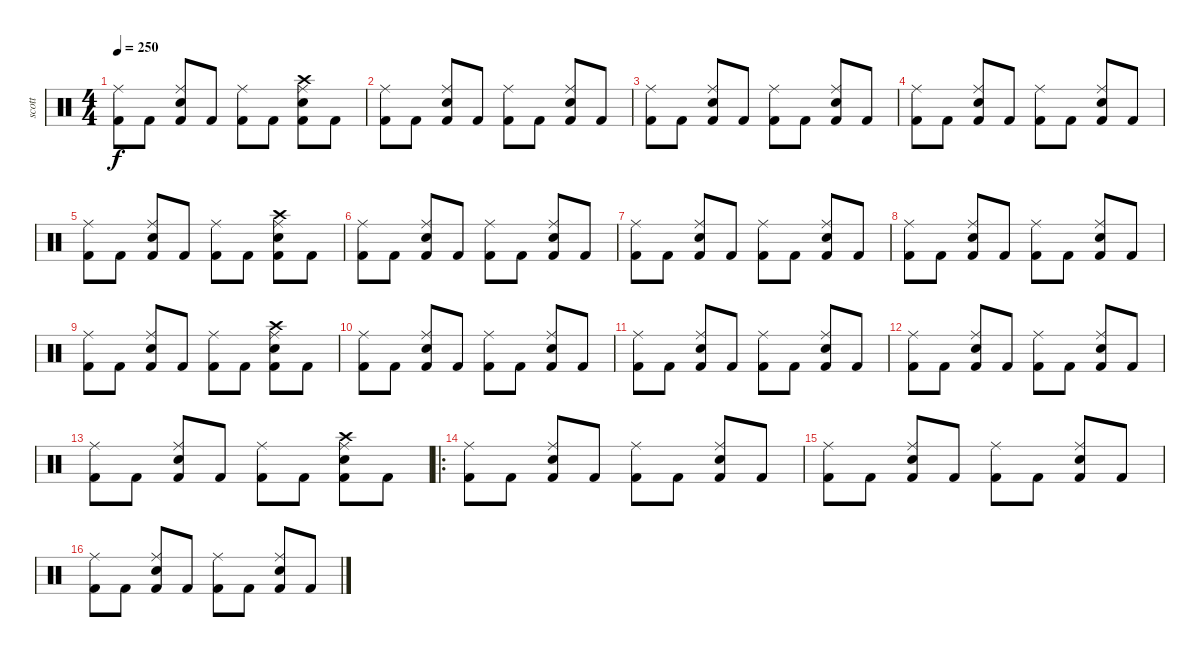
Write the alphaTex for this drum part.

\track ("scott" "scott") {instrument percussion bank 10}
\staff {score}
\articulation defaults
\ts (4 4)
\tempo 250
\clef neutral
\ks c
("Kick (hit) 2" "Ride (middle)").8{dy f} "Kick (hit) 2".8 ("Kick (hit) 2" "Snare (hit) 2" "Ride (middle)").8 "Kick (hit) 2".8 ("Kick (hit) 2" "Ride (middle)").8 "Kick (hit) 2".8 ("Kick (hit) 2" "Snare (hit) 2" "Ride (middle)" "Crash high (hit)").8 "Kick (hit) 2".8 |
("Kick (hit) 2" "Ride (middle)").8 "Kick (hit) 2".8 ("Kick (hit) 2" "Snare (hit) 2" "Ride (middle)").8 "Kick (hit) 2".8 ("Kick (hit) 2" "Ride (middle)").8 "Kick (hit) 2".8 ("Kick (hit) 2" "Snare (hit) 2" "Ride (middle)").8 "Kick (hit) 2".8 |
("Kick (hit) 2" "Ride (middle)").8 "Kick (hit) 2".8 ("Kick (hit) 2" "Snare (hit) 2" "Ride (middle)").8 "Kick (hit) 2".8 ("Kick (hit) 2" "Ride (middle)").8 "Kick (hit) 2".8 ("Kick (hit) 2" "Snare (hit) 2" "Ride (middle)").8 "Kick (hit) 2".8 |
("Kick (hit) 2" "Ride (middle)").8 "Kick (hit) 2".8 ("Kick (hit) 2" "Snare (hit) 2" "Ride (middle)").8 "Kick (hit) 2".8 ("Kick (hit) 2" "Ride (middle)").8 "Kick (hit) 2".8 ("Kick (hit) 2" "Snare (hit) 2" "Ride (middle)").8 "Kick (hit) 2".8 |
("Kick (hit) 2" "Ride (middle)").8 "Kick (hit) 2".8 ("Kick (hit) 2" "Snare (hit) 2" "Ride (middle)").8 "Kick (hit) 2".8 ("Kick (hit) 2" "Ride (middle)").8 "Kick (hit) 2".8 ("Kick (hit) 2" "Snare (hit) 2" "Ride (middle)" "Crash high (hit)").8 "Kick (hit) 2".8 |
("Kick (hit) 2" "Ride (middle)").8 "Kick (hit) 2".8 ("Kick (hit) 2" "Snare (hit) 2" "Ride (middle)").8 "Kick (hit) 2".8 ("Kick (hit) 2" "Ride (middle)").8 "Kick (hit) 2".8 ("Kick (hit) 2" "Snare (hit) 2" "Ride (middle)").8 "Kick (hit) 2".8 |
("Kick (hit) 2" "Ride (middle)").8 "Kick (hit) 2".8 ("Kick (hit) 2" "Snare (hit) 2" "Ride (middle)").8 "Kick (hit) 2".8 ("Kick (hit) 2" "Ride (middle)").8 "Kick (hit) 2".8 ("Kick (hit) 2" "Snare (hit) 2" "Ride (middle)").8 "Kick (hit) 2".8 |
("Kick (hit) 2" "Ride (middle)").8 "Kick (hit) 2".8 ("Kick (hit) 2" "Snare (hit) 2" "Ride (middle)").8 "Kick (hit) 2".8 ("Kick (hit) 2" "Ride (middle)").8 "Kick (hit) 2".8 ("Kick (hit) 2" "Snare (hit) 2" "Ride (middle)").8 "Kick (hit) 2".8 |
("Kick (hit) 2" "Ride (middle)").8 "Kick (hit) 2".8 ("Kick (hit) 2" "Snare (hit) 2" "Ride (middle)").8 "Kick (hit) 2".8 ("Kick (hit) 2" "Ride (middle)").8 "Kick (hit) 2".8 ("Kick (hit) 2" "Snare (hit) 2" "Ride (middle)" "Crash high (hit)").8 "Kick (hit) 2".8 |
("Kick (hit) 2" "Ride (middle)").8 "Kick (hit) 2".8 ("Kick (hit) 2" "Snare (hit) 2" "Ride (middle)").8 "Kick (hit) 2".8 ("Kick (hit) 2" "Ride (middle)").8 "Kick (hit) 2".8 ("Kick (hit) 2" "Snare (hit) 2" "Ride (middle)").8 "Kick (hit) 2".8 |
("Kick (hit) 2" "Ride (middle)").8 "Kick (hit) 2".8 ("Kick (hit) 2" "Snare (hit) 2" "Ride (middle)").8 "Kick (hit) 2".8 ("Kick (hit) 2" "Ride (middle)").8 "Kick (hit) 2".8 ("Kick (hit) 2" "Snare (hit) 2" "Ride (middle)").8 "Kick (hit) 2".8 |
("Kick (hit) 2" "Ride (middle)").8 "Kick (hit) 2".8 ("Kick (hit) 2" "Snare (hit) 2" "Ride (middle)").8 "Kick (hit) 2".8 ("Kick (hit) 2" "Ride (middle)").8 "Kick (hit) 2".8 ("Kick (hit) 2" "Snare (hit) 2" "Ride (middle)").8 "Kick (hit) 2".8 |
("Kick (hit) 2" "Ride (middle)").8 "Kick (hit) 2".8 ("Kick (hit) 2" "Snare (hit) 2" "Ride (middle)").8 "Kick (hit) 2".8 ("Kick (hit) 2" "Ride (middle)").8 "Kick (hit) 2".8 ("Kick (hit) 2" "Snare (hit) 2" "Ride (middle)" "Crash high (hit)").8 "Kick (hit) 2".8 |
\ro
("Kick (hit) 2" "Ride (middle)").8 "Kick (hit) 2".8 ("Kick (hit) 2" "Snare (hit) 2" "Ride (middle)").8 "Kick (hit) 2".8 ("Kick (hit) 2" "Ride (middle)").8 "Kick (hit) 2".8 ("Kick (hit) 2" "Snare (hit) 2" "Ride (middle)").8 "Kick (hit) 2".8 |
("Kick (hit) 2" "Ride (middle)").8 "Kick (hit) 2".8 ("Kick (hit) 2" "Snare (hit) 2" "Ride (middle)").8 "Kick (hit) 2".8 ("Kick (hit) 2" "Ride (middle)").8 "Kick (hit) 2".8 ("Kick (hit) 2" "Snare (hit) 2" "Ride (middle)").8 "Kick (hit) 2".8 |
("Kick (hit) 2" "Ride (middle)").8 "Kick (hit) 2".8 ("Kick (hit) 2" "Snare (hit) 2" "Ride (middle)").8 "Kick (hit) 2".8 ("Kick (hit) 2" "Ride (middle)").8 "Kick (hit) 2".8 ("Kick (hit) 2" "Snare (hit) 2" "Ride (middle)").8 "Kick (hit) 2".8
